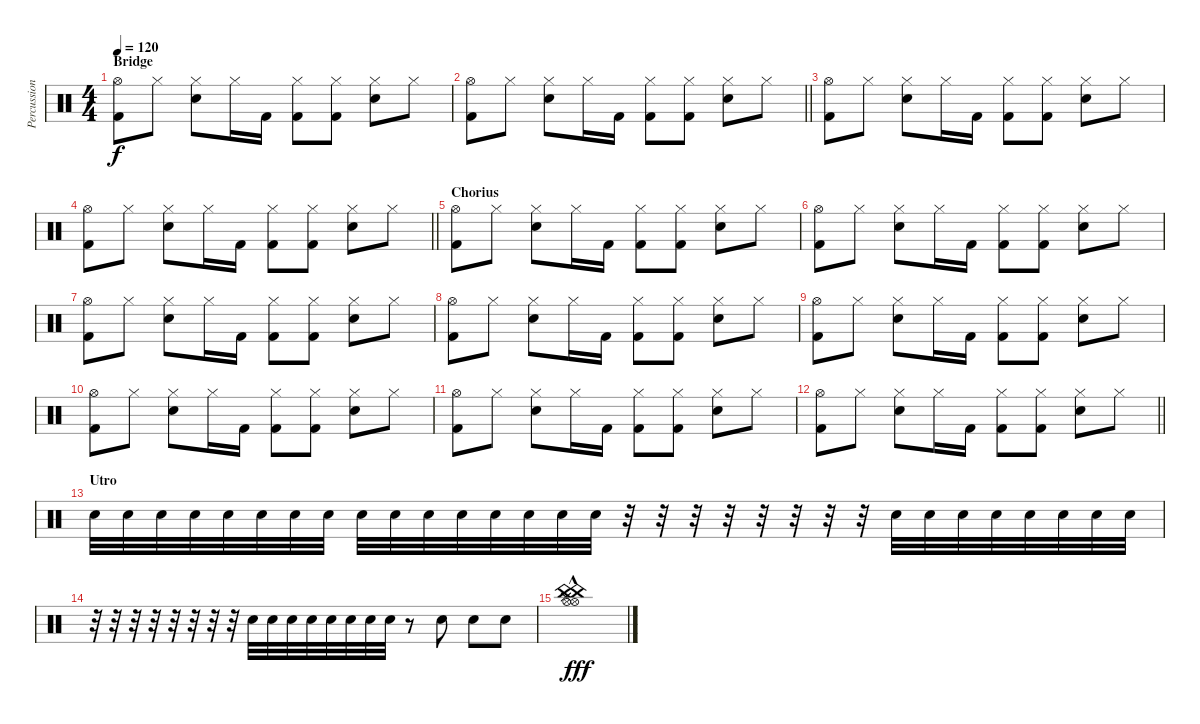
\track ("Percussion" "Percussion") {instrument percussion}
\staff {score}
\articulation defaults
\ts (4 4)
\section ("" "Bridge")
\tempo 120
\clef neutral
\ks c
("Hi-Hat (open)" "Kick (hit) 2").8{dy f} "Hi-Hat (closed)".8 ("Hi-Hat (closed)" "Snare (hit) 2").8 "Hi-Hat (closed)".16 "Kick (hit) 2".16 ("Hi-Hat (closed)" "Kick (hit) 2").8 ("Hi-Hat (closed)" "Kick (hit) 2").8 ("Hi-Hat (closed)" "Snare (hit) 2").8 "Hi-Hat (closed)".8 |
\barLineRight lightlight
("Hi-Hat (open)" "Kick (hit) 2").8 "Hi-Hat (closed)".8 ("Hi-Hat (closed)" "Snare (hit) 2").8 "Hi-Hat (closed)".16 "Kick (hit) 2".16 ("Hi-Hat (closed)" "Kick (hit) 2").8 ("Hi-Hat (closed)" "Kick (hit) 2").8 ("Hi-Hat (closed)" "Snare (hit) 2").8 "Hi-Hat (closed)".8 |
("Hi-Hat (open)" "Kick (hit) 2").8 "Hi-Hat (closed)".8 ("Hi-Hat (closed)" "Snare (hit) 2").8 "Hi-Hat (closed)".16 "Kick (hit) 2".16 ("Hi-Hat (closed)" "Kick (hit) 2").8 ("Hi-Hat (closed)" "Kick (hit) 2").8 ("Hi-Hat (closed)" "Snare (hit) 2").8 "Hi-Hat (closed)".8 |
\barLineRight lightlight
("Hi-Hat (open)" "Kick (hit) 2").8 "Hi-Hat (closed)".8 ("Hi-Hat (closed)" "Snare (hit) 2").8 "Hi-Hat (closed)".16 "Kick (hit) 2".16 ("Hi-Hat (closed)" "Kick (hit) 2").8 ("Hi-Hat (closed)" "Kick (hit) 2").8 ("Hi-Hat (closed)" "Snare (hit) 2").8 "Hi-Hat (closed)".8 |
\section ("" "Chorius")
("Hi-Hat (open)" "Kick (hit) 2").8 "Hi-Hat (closed)".8 ("Hi-Hat (closed)" "Snare (hit) 2").8 "Hi-Hat (closed)".16 "Kick (hit) 2".16 ("Hi-Hat (closed)" "Kick (hit) 2").8 ("Hi-Hat (closed)" "Kick (hit) 2").8 ("Hi-Hat (closed)" "Snare (hit) 2").8 "Hi-Hat (closed)".8 |
("Hi-Hat (open)" "Kick (hit) 2").8 "Hi-Hat (closed)".8 ("Hi-Hat (closed)" "Snare (hit) 2").8 "Hi-Hat (closed)".16 "Kick (hit) 2".16 ("Hi-Hat (closed)" "Kick (hit) 2").8 ("Hi-Hat (closed)" "Kick (hit) 2").8 ("Hi-Hat (closed)" "Snare (hit) 2").8 "Hi-Hat (closed)".8 |
("Hi-Hat (open)" "Kick (hit) 2").8 "Hi-Hat (closed)".8 ("Hi-Hat (closed)" "Snare (hit) 2").8 "Hi-Hat (closed)".16 "Kick (hit) 2".16 ("Hi-Hat (closed)" "Kick (hit) 2").8 ("Hi-Hat (closed)" "Kick (hit) 2").8 ("Hi-Hat (closed)" "Snare (hit) 2").8 "Hi-Hat (closed)".8 |
("Hi-Hat (open)" "Kick (hit) 2").8 "Hi-Hat (closed)".8 ("Hi-Hat (closed)" "Snare (hit) 2").8 "Hi-Hat (closed)".16 "Kick (hit) 2".16 ("Hi-Hat (closed)" "Kick (hit) 2").8 ("Hi-Hat (closed)" "Kick (hit) 2").8 ("Hi-Hat (closed)" "Snare (hit) 2").8 "Hi-Hat (closed)".8 |
("Hi-Hat (open)" "Kick (hit) 2").8 "Hi-Hat (closed)".8 ("Hi-Hat (closed)" "Snare (hit) 2").8 "Hi-Hat (closed)".16 "Kick (hit) 2".16 ("Hi-Hat (closed)" "Kick (hit) 2").8 ("Hi-Hat (closed)" "Kick (hit) 2").8 ("Hi-Hat (closed)" "Snare (hit) 2").8 "Hi-Hat (closed)".8 |
("Hi-Hat (open)" "Kick (hit) 2").8 "Hi-Hat (closed)".8 ("Hi-Hat (closed)" "Snare (hit) 2").8 "Hi-Hat (closed)".16 "Kick (hit) 2".16 ("Hi-Hat (closed)" "Kick (hit) 2").8 ("Hi-Hat (closed)" "Kick (hit) 2").8 ("Hi-Hat (closed)" "Snare (hit) 2").8 "Hi-Hat (closed)".8 |
("Hi-Hat (open)" "Kick (hit) 2").8 "Hi-Hat (closed)".8 ("Hi-Hat (closed)" "Snare (hit) 2").8 "Hi-Hat (closed)".16 "Kick (hit) 2".16 ("Hi-Hat (closed)" "Kick (hit) 2").8 ("Hi-Hat (closed)" "Kick (hit) 2").8 ("Hi-Hat (closed)" "Snare (hit) 2").8 "Hi-Hat (closed)".8 |
\barLineRight lightlight
("Hi-Hat (open)" "Kick (hit) 2").8 "Hi-Hat (closed)".8 ("Hi-Hat (closed)" "Snare (hit) 2").8 "Hi-Hat (closed)".16 "Kick (hit) 2".16 ("Hi-Hat (closed)" "Kick (hit) 2").8 ("Hi-Hat (closed)" "Kick (hit) 2").8 ("Hi-Hat (closed)" "Snare (hit) 2").8 "Hi-Hat (closed)".8 |
\section ("" "Utro")
"Electric Snare (hit)".32 "Electric Snare (hit)".32 "Electric Snare (hit)".32 "Electric Snare (hit)".32 "Electric Snare (hit)".32 "Electric Snare (hit)".32 "Electric Snare (hit)".32 "Electric Snare (hit)".32 "Electric Snare (hit)".32 "Electric Snare (hit)".32 "Electric Snare (hit)".32 "Electric Snare (hit)".32 "Electric Snare (hit)".32 "Electric Snare (hit)".32 "Electric Snare (hit)".32 "Electric Snare (hit)".32 r.32 r.32 r.32 r.32 r.32 r.32 r.32 r.32 "Electric Snare (hit)".32 "Electric Snare (hit)".32 "Electric Snare (hit)".32 "Electric Snare (hit)".32 "Electric Snare (hit)".32 "Electric Snare (hit)".32 "Electric Snare (hit)".32 "Electric Snare (hit)".32 |
r.32 r.32 r.32 r.32 r.32 r.32 r.32 r.32 "Electric Snare (hit)".32 "Electric Snare (hit)".32 "Electric Snare (hit)".32 "Electric Snare (hit)".32 "Electric Snare (hit)".32 "Electric Snare (hit)".32 "Electric Snare (hit)".32 "Electric Snare (hit)".32 r.8 "Electric Snare (hit)".8 "Electric Snare (hit)".8 "Electric Snare (hit)".8 |
("Splash (hit)"{hac} "Hi-Hat (open)"{hac} "China (hit)"{hac} "Splash (hit)"{hac} "China (hit)"{hac} "Hi-Hat (open)"{hac}).1{dy fff volume 16}
